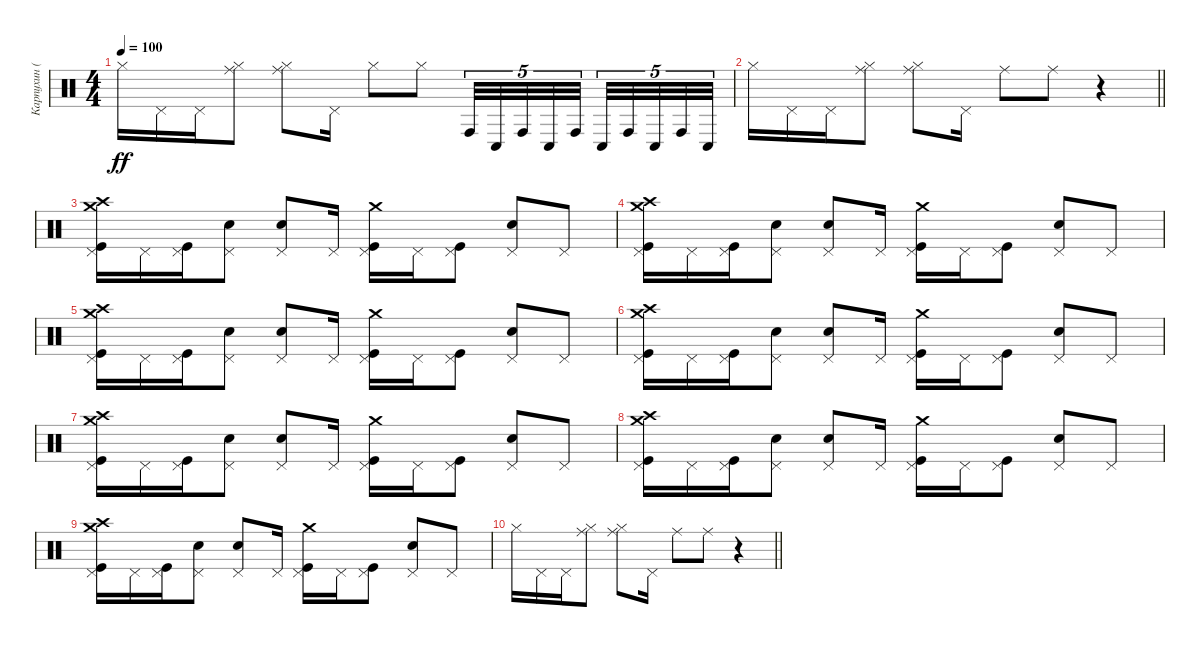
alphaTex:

\track ("Карпухин (ударные)" "Карпухин (") {instrument percussion}
\staff {score}
\articulation defaults
\ts (4 4)
\tempo 100
\clef neutral
\ks c "Hi-Hat (closed)".16{dy ff} "Pedal Hi-Hat (hit)".16 "Pedal Hi-Hat (hit)".16
("Hi-Hat (closed)" "Ride (middle)").8 ("Hi-Hat (closed)" "Ride (middle)").8 "Pedal Hi-Hat (hit)".16 "Hi-Hat (closed)".8 "Hi-Hat (closed)".8 "Conga high (hit)".32{tu (5 4)} "Conga low (hit)".32{tu (5 4)} "Conga high (hit)".32{tu (5 4)} "Conga low (hit)".32{tu (5 4)} "Conga high (hit)".32{tu (5 4) beam splitsecondary} "Conga low (hit)".32{tu (5 4)} "Conga high (hit)".32{tu (5 4)} "Conga low (hit)".32{tu (5 4)} "Conga high (hit)".32{tu (5 4)} "Conga low (hit)".32{tu (5 4)} |
\barLineRight lightlight "Hi-Hat (closed)".16 "Pedal Hi-Hat (hit)".16 "Pedal Hi-Hat (hit)".16
("Hi-Hat (closed)" "Ride (middle)").8 ("Hi-Hat (closed)" "Ride (middle)").8 "Pedal Hi-Hat (hit)".16 "Ride (middle)".8 "Ride (middle)".8 r.4 |
("Pedal Hi-Hat (hit)" "Kick (hit)" "Crash high (hit)" "Crash medium (hit)").16 "Pedal Hi-Hat (hit)".16 ("Pedal Hi-Hat (hit)" "Kick (hit)").16 ("Pedal Hi-Hat (hit)" "Snare (hit) 2").8 ("Pedal Hi-Hat (hit)" "Snare (hit) 2").8 "Pedal Hi-Hat (hit)".16 ("Pedal Hi-Hat (hit)" "Kick (hit)" "Crash medium (hit)").16 "Pedal Hi-Hat (hit)".16 ("Pedal Hi-Hat (hit)" "Kick (hit)").8 ("Pedal Hi-Hat (hit)" "Snare (hit) 2").8 "Pedal Hi-Hat (hit)".8 |
("Pedal Hi-Hat (hit)" "Kick (hit)" "Crash high (hit)" "Crash medium (hit)").16 "Pedal Hi-Hat (hit)".16 ("Pedal Hi-Hat (hit)" "Kick (hit)").16 ("Pedal Hi-Hat (hit)" "Snare (hit) 2").8 ("Pedal Hi-Hat (hit)" "Snare (hit) 2").8 "Pedal Hi-Hat (hit)".16 ("Pedal Hi-Hat (hit)" "Kick (hit)" "Crash medium (hit)").16 "Pedal Hi-Hat (hit)".16 ("Pedal Hi-Hat (hit)" "Kick (hit)").8 ("Pedal Hi-Hat (hit)" "Snare (hit) 2").8 "Pedal Hi-Hat (hit)".8 |
("Pedal Hi-Hat (hit)" "Kick (hit)" "Crash high (hit)" "Crash medium (hit)").16 "Pedal Hi-Hat (hit)".16 ("Pedal Hi-Hat (hit)" "Kick (hit)").16 ("Pedal Hi-Hat (hit)" "Snare (hit) 2").8 ("Pedal Hi-Hat (hit)" "Snare (hit) 2").8 "Pedal Hi-Hat (hit)".16 ("Pedal Hi-Hat (hit)" "Kick (hit)" "Crash medium (hit)").16 "Pedal Hi-Hat (hit)".16 ("Pedal Hi-Hat (hit)" "Kick (hit)").8 ("Pedal Hi-Hat (hit)" "Snare (hit) 2").8 "Pedal Hi-Hat (hit)".8 |
("Pedal Hi-Hat (hit)" "Kick (hit)" "Crash high (hit)" "Crash medium (hit)").16 "Pedal Hi-Hat (hit)".16 ("Pedal Hi-Hat (hit)" "Kick (hit)").16 ("Pedal Hi-Hat (hit)" "Snare (hit) 2").8 ("Pedal Hi-Hat (hit)" "Snare (hit) 2").8 "Pedal Hi-Hat (hit)".16 ("Pedal Hi-Hat (hit)" "Kick (hit)" "Crash medium (hit)").16 "Pedal Hi-Hat (hit)".16 ("Pedal Hi-Hat (hit)" "Kick (hit)").8 ("Pedal Hi-Hat (hit)" "Snare (hit) 2").8 "Pedal Hi-Hat (hit)".8 |
("Pedal Hi-Hat (hit)" "Kick (hit)" "Crash high (hit)" "Crash medium (hit)").16 "Pedal Hi-Hat (hit)".16 ("Pedal Hi-Hat (hit)" "Kick (hit)").16 ("Pedal Hi-Hat (hit)" "Snare (hit) 2").8 ("Pedal Hi-Hat (hit)" "Snare (hit) 2").8 "Pedal Hi-Hat (hit)".16 ("Pedal Hi-Hat (hit)" "Kick (hit)" "Crash medium (hit)").16 "Pedal Hi-Hat (hit)".16 ("Pedal Hi-Hat (hit)" "Kick (hit)").8 ("Pedal Hi-Hat (hit)" "Snare (hit) 2").8 "Pedal Hi-Hat (hit)".8 |
("Pedal Hi-Hat (hit)" "Kick (hit)" "Crash high (hit)" "Crash medium (hit)").16 "Pedal Hi-Hat (hit)".16 ("Pedal Hi-Hat (hit)" "Kick (hit)").16 ("Pedal Hi-Hat (hit)" "Snare (hit) 2").8 ("Pedal Hi-Hat (hit)" "Snare (hit) 2").8 "Pedal Hi-Hat (hit)".16 ("Pedal Hi-Hat (hit)" "Kick (hit)" "Crash medium (hit)").16 "Pedal Hi-Hat (hit)".16 ("Pedal Hi-Hat (hit)" "Kick (hit)").8 ("Pedal Hi-Hat (hit)" "Snare (hit) 2").8 "Pedal Hi-Hat (hit)".8 |
("Pedal Hi-Hat (hit)" "Kick (hit)" "Crash high (hit)" "Crash medium (hit)").16 "Pedal Hi-Hat (hit)".16 ("Pedal Hi-Hat (hit)" "Kick (hit)").16 ("Pedal Hi-Hat (hit)" "Snare (hit) 2").8 ("Pedal Hi-Hat (hit)" "Snare (hit) 2").8 "Pedal Hi-Hat (hit)".16 ("Pedal Hi-Hat (hit)" "Kick (hit)" "Crash medium (hit)").16 "Pedal Hi-Hat (hit)".16 ("Pedal Hi-Hat (hit)" "Kick (hit)").8 ("Pedal Hi-Hat (hit)" "Snare (hit) 2").8 "Pedal Hi-Hat (hit)".8 |
\barLineRight lightlight "Hi-Hat (closed)".16 "Pedal Hi-Hat (hit)".16 "Pedal Hi-Hat (hit)".16
("Hi-Hat (closed)" "Ride (middle)").8 ("Hi-Hat (closed)" "Ride (middle)").8 "Pedal Hi-Hat (hit)".16 "Ride (middle)".8 "Ride (middle)".8 r.4
